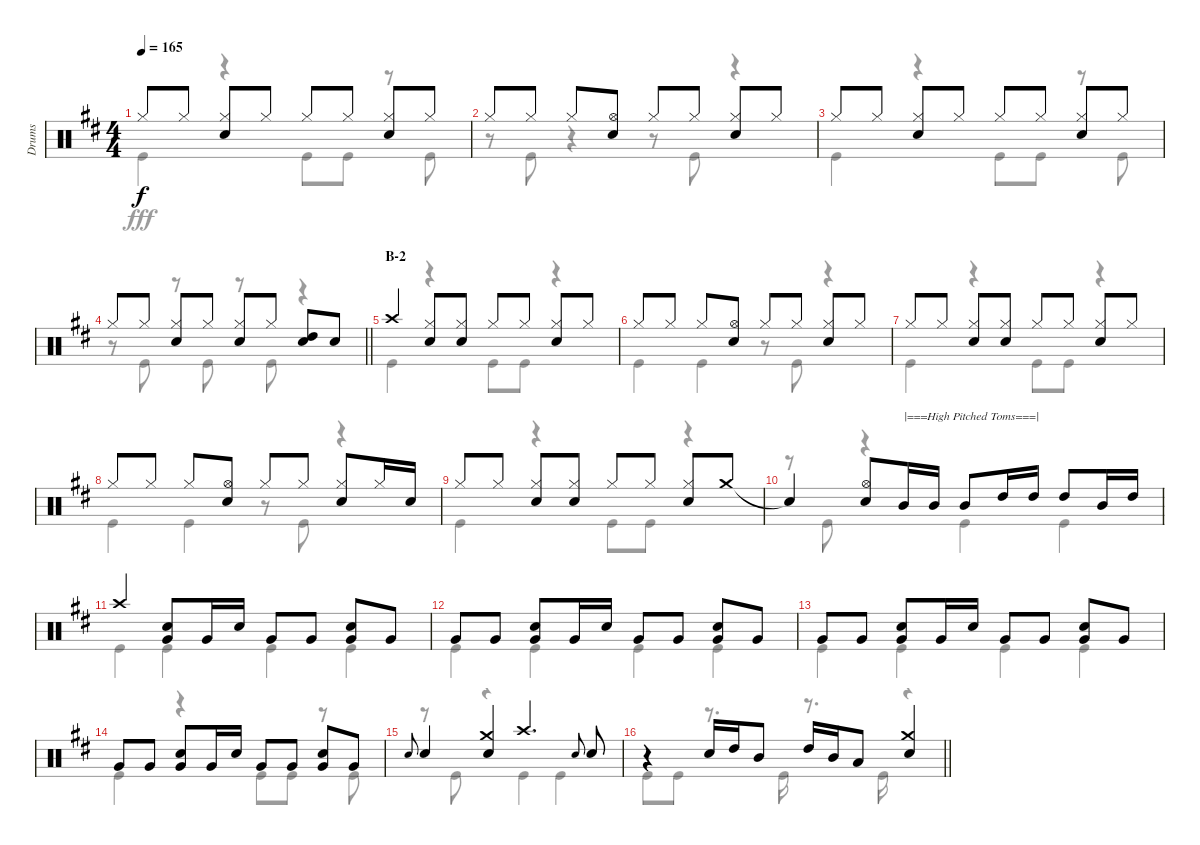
\track ("Drums" "Drums") {instrument percussion}
\staff {score}
\articulation defaults
\voice
\ts (4 4)
\tempo 165
\clef neutral
\ks d "Hi-Hat (closed)".8{dy f} "Hi-Hat (closed)".8
("Hi-Hat (closed)" "Snare (hit) 2").8 "Hi-Hat (closed)".8 "Hi-Hat (closed)".8 "Hi-Hat (closed)".8 ("Hi-Hat (closed)" "Snare (hit) 2").8 "Hi-Hat (closed)".8 |
"Hi-Hat (closed)".8 "Hi-Hat (closed)".8 "Hi-Hat (closed)".8 ("Hi-Hat (open)" "Snare (hit) 2").8 "Hi-Hat (closed)".8 "Hi-Hat (closed)".8 ("Hi-Hat (closed)" "Snare (hit) 2").8 "Hi-Hat (closed)".8 |
"Hi-Hat (closed)".8 "Hi-Hat (closed)".8 ("Hi-Hat (closed)" "Snare (hit) 2").8 "Hi-Hat (closed)".8 "Hi-Hat (closed)".8 "Hi-Hat (closed)".8 ("Hi-Hat (closed)" "Snare (hit) 2").8 "Hi-Hat (closed)".8 |
\barLineRight lightlight "Hi-Hat (closed)".8 "Hi-Hat (closed)".8
("Hi-Hat (closed)" "Snare (hit) 2").8 "Hi-Hat (closed)".8 ("Hi-Hat (closed)" "Snare (hit) 2").8 "Hi-Hat (closed)".8 ("High Tom (hit)" "Snare (hit) 2").8 "Snare (hit) 2".8 |
\section ("" "B-2")
"Crash high (hit)".4 ("Hi-Hat (closed)" "Snare (hit) 2").8 ("Hi-Hat (closed)" "Snare (hit) 2").8 "Hi-Hat (closed)".8 "Hi-Hat (closed)".8 ("Hi-Hat (closed)" "Snare (hit) 2").8 "Hi-Hat (closed)".8 |
"Hi-Hat (closed)".8 "Hi-Hat (closed)".8 "Hi-Hat (closed)".8 ("Hi-Hat (open)" "Snare (hit) 2").8 "Hi-Hat (closed)".8 "Hi-Hat (closed)".8 ("Hi-Hat (closed)" "Snare (hit) 2").8 "Hi-Hat (closed)".8 |
"Hi-Hat (closed)".8 "Hi-Hat (closed)".8 ("Hi-Hat (closed)" "Snare (hit) 2").8 ("Hi-Hat (closed)" "Snare (hit) 2").8 "Hi-Hat (closed)".8 "Hi-Hat (closed)".8 ("Hi-Hat (closed)" "Snare (hit) 2").8 "Hi-Hat (closed)".8 |
"Hi-Hat (closed)".8 "Hi-Hat (closed)".8 "Hi-Hat (closed)".8 ("Hi-Hat (open)" "Snare (hit) 2").8 "Hi-Hat (closed)".8 "Hi-Hat (closed)".8 ("Hi-Hat (closed)" "Snare (hit) 2").8 "Hi-Hat (closed)".16 "Snare (hit) 2".16 |
"Hi-Hat (closed)".8 "Hi-Hat (closed)".8 ("Hi-Hat (closed)" "Snare (hit) 2").8 ("Hi-Hat (closed)" "Snare (hit) 2").8 "Hi-Hat (closed)".8 "Hi-Hat (closed)".8 ("Hi-Hat (closed)" "Snare (hit) 2").8 "Crash medium (hit)".8 |
"Snare (hit)"{t}.4 ("Hi-Hat (open)" "Snare (hit) 2").8 "Mid Tom (hit)".16{txt "|===High Pitched Toms===|"} "Mid Tom (hit)".16 "Mid Tom (hit)".8 "High Tom (hit)".16 "High Tom (hit)".16 "High Tom (hit)".8 "Mid Tom (hit)".16 "High Tom (hit)".16 |
"Crash high (hit)".4 ("Snare (hit) 2" "Very Low Tom (hit)").8 "Very Low Tom (hit)".16 "Snare (hit) 2".16 "Very Low Tom (hit)".8 "Very Low Tom (hit)".8 ("Snare (hit) 2" "Very Low Tom (hit)").8 "Very Low Tom (hit)".8 |
"Very Low Tom (hit)".8 "Very Low Tom (hit)".8 ("Snare (hit) 2" "Very Low Tom (hit)").8 "Very Low Tom (hit)".16 "Snare (hit) 2".16 "Very Low Tom (hit)".8 "Very Low Tom (hit)".8 ("Snare (hit) 2" "Very Low Tom (hit)").8 "Very Low Tom (hit)".8 |
"Very Low Tom (hit)".8 "Very Low Tom (hit)".8 ("Snare (hit) 2" "Very Low Tom (hit)").8 "Very Low Tom (hit)".16 "Snare (hit) 2".16 "Very Low Tom (hit)".8 "Very Low Tom (hit)".8 ("Snare (hit) 2" "Very Low Tom (hit)").8 "Very Low Tom (hit)".8 |
"Very Low Tom (hit)".8 "Very Low Tom (hit)".8 ("Snare (hit) 2" "Very Low Tom (hit)").8 "Very Low Tom (hit)".16 "Snare (hit) 2".16 "Very Low Tom (hit)".8 "Very Low Tom (hit)".8 ("Snare (hit) 2" "Very Low Tom (hit)").8 "Very Low Tom (hit)".8 |
"Snare (hit) 2".8{gr onbeat} "Snare (hit) 2".4 ("Crash medium (hit)" "Snare (hit) 2").4 "Crash high (hit)".4{d} "Snare (hit) 2".8{gr onbeat} "Snare (hit) 2".8 |
\barLineRight lightlight
r.4 "Snare (hit) 2".16 "High Tom (hit)".16 "Mid Tom (hit)".8 "High Tom (hit)".16 "Mid Tom (hit)".16 "Low Tom (hit)".8 ("Crash medium (hit)" "Snare (hit) 2").4
\voice
\clef neutral
\ottava regular
\simile none
\ks d "Kick (hit)".4{dy fff}
r.4 "Kick (hit)".8 "Kick (hit)".8 r.8 "Kick (hit)".8 |
r.8 "Kick (hit)".8 r.4 r.8 "Kick (hit)".8 r.4 |
"Kick (hit)".4 r.4 "Kick (hit)".8 "Kick (hit)".8 r.8 "Kick (hit)".8 |
\barLineRight lightlight
r.8 "Kick (hit)".8 r.8 "Kick (hit)".8 r.8 "Kick (hit)".8 r.4 |
"Kick (hit)".4 r.4 "Kick (hit)".8 "Kick (hit)".8 r.4 |
"Kick (hit)".4 "Kick (hit)".4 r.8 "Kick (hit)".8 r.4 |
"Kick (hit)".4 r.4 "Kick (hit)".8 "Kick (hit)".8 r.4 |
"Kick (hit)".4 "Kick (hit)".4 r.8 "Kick (hit)".8 r.4 |
"Kick (hit)".4 r.4 "Kick (hit)".8 "Kick (hit)".8 r.4 |
r.8 "Kick (hit)".8 r.4 "Kick (hit)".4 "Kick (hit)".4 |
"Kick (hit)".4 "Kick (hit)".4 "Kick (hit)".4 "Kick (hit)".4 |
"Kick (hit)".4 "Kick (hit)".4 "Kick (hit)".4 "Kick (hit)".4 |
"Kick (hit)".4 "Kick (hit)".4 "Kick (hit)".4 "Kick (hit)".4 |
"Kick (hit)".4 r.4 "Kick (hit)".8 "Kick (hit)".8 r.8 "Kick (hit)".8 |
r.8 "Kick (hit)".8 r.4 "Kick (hit)".4 "Kick (hit)".4 |
\barLineRight lightlight "Kick (hit)".8 "Kick (hit)".8
r.8{d} "Kick (hit)".16 r.8{d} "Kick (hit)".16 r.4
